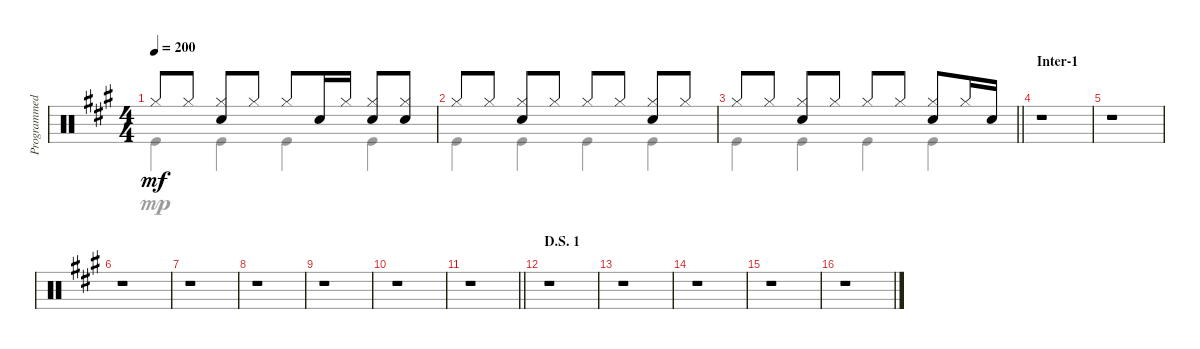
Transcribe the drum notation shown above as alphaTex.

\track ("Programmed Drums" "Programmed") {instrument percussion}
\staff {score}
\articulation defaults
\voice
\ts (4 4)
\tempo 200
\clef neutral
\ks a "Hi-Hat (closed)".8{dy mf} "Hi-Hat (closed)".8
("Hi-Hat (closed)" "Snare (hit) 2").8 "Hi-Hat (closed)".8 "Hi-Hat (closed)".8 "Snare (hit) 2".16 "Hi-Hat (closed)".16 ("Hi-Hat (closed)" "Snare (hit) 2").8 ("Hi-Hat (closed)" "Snare (hit) 2").8 |
"Hi-Hat (closed)".8 "Hi-Hat (closed)".8 ("Hi-Hat (closed)" "Snare (hit) 2").8 "Hi-Hat (closed)".8 "Hi-Hat (closed)".8 "Hi-Hat (closed)".8 ("Hi-Hat (closed)" "Snare (hit) 2").8 "Hi-Hat (closed)".8 |
\barLineRight lightlight "Hi-Hat (closed)".8 "Hi-Hat (closed)".8
("Hi-Hat (closed)" "Snare (hit) 2").8 "Hi-Hat (closed)".8 "Hi-Hat (closed)".8 "Hi-Hat (closed)".8 ("Hi-Hat (closed)" "Snare (hit) 2").8 "Hi-Hat (closed)".16 "Snare (hit) 2".16 |
\section ("" "Inter-1")
r.1 |
r.1 |
r.1 |
r.1 |
r.1 |
r.1 |
r.1 |
\barLineRight lightlight
r.1 |
\section ("" "D.S. 1")
r.1 |
r.1 |
r.1 |
r.1 |
r.1
\voice
\clef neutral
\ottava regular
\simile none
\ks a "Kick (hit)".4{dy mp} "Kick (hit)".4 "Kick (hit)".4 "Kick (hit)".4
|
"Kick (hit)".4 "Kick (hit)".4 "Kick (hit)".4 "Kick (hit)".4 |
\barLineRight lightlight "Kick (hit)".4 "Kick (hit)".4 "Kick (hit)".4 "Kick (hit)".4
|
|
|
|
|
|
|
|
\barLineRight lightlight
|
|
|
|
|
